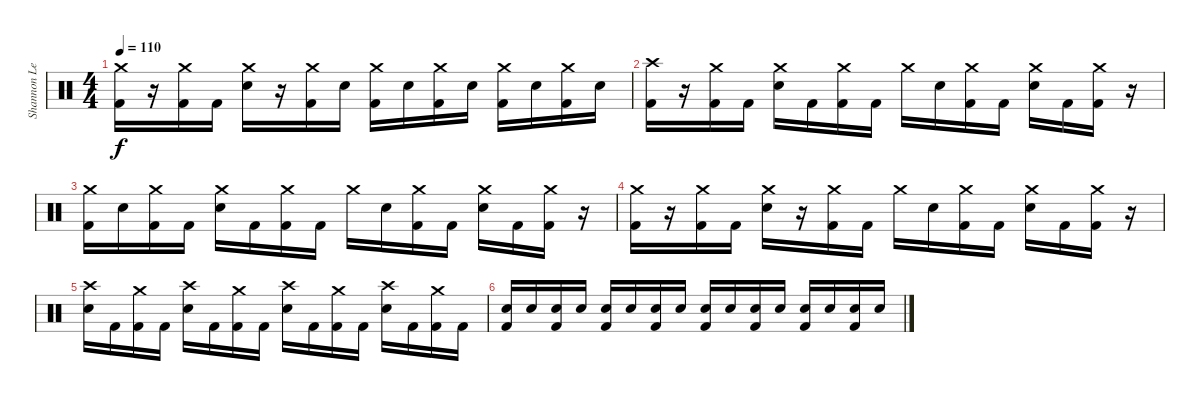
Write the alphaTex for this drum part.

\track ("Shannon Leto [Drums]" "Shannon Le") {instrument percussion}
\staff {score}
\articulation defaults
\ts (4 4)
\tempo 110
\clef neutral
\ks c
("Crash medium (hit)" "Kick (hit) 2").16{dy f} r.16 ("Crash medium (hit)" "Kick (hit) 2").16 "Kick (hit) 2".16 ("Crash medium (hit)" "Electric Snare (hit)").16 r.16 ("Crash medium (hit)" "Kick (hit) 2").16 "Electric Snare (hit)".16 ("Crash medium (hit)" "Kick (hit) 2").16 "Electric Snare (hit)".16 ("Crash medium (hit)" "Kick (hit) 2").16 "Electric Snare (hit)".16 ("Crash medium (hit)" "Kick (hit) 2").16 "Electric Snare (hit)".16 ("Crash medium (hit)" "Kick (hit) 2").16 "Electric Snare (hit)".16 |
("Crash high (hit)" "Kick (hit) 2").16 r.16 ("Crash medium (hit)" "Kick (hit) 2").16 "Kick (hit) 2".16 ("Crash medium (hit)" "Electric Snare (hit)").16 "Kick (hit) 2".16 ("Crash medium (hit)" "Kick (hit) 2").16 "Kick (hit) 2".16 "Crash medium (hit)".16 "Electric Snare (hit)".16 ("Crash medium (hit)" "Kick (hit) 2").16 "Kick (hit) 2".16 ("Crash medium (hit)" "Electric Snare (hit)").16 "Kick (hit) 2".16 ("Crash medium (hit)" "Kick (hit) 2").16 r.16 |
("Crash medium (hit)" "Kick (hit) 2").16 "Electric Snare (hit)".16 ("Crash medium (hit)" "Kick (hit) 2").16 "Kick (hit) 2".16 ("Crash medium (hit)" "Electric Snare (hit)").16 "Kick (hit) 2".16 ("Crash medium (hit)" "Kick (hit) 2").16 "Kick (hit) 2".16 "Crash medium (hit)".16 "Electric Snare (hit)".16 ("Crash medium (hit)" "Kick (hit) 2").16 "Kick (hit) 2".16 ("Crash medium (hit)" "Electric Snare (hit)").16 "Kick (hit) 2".16 ("Crash medium (hit)" "Kick (hit) 2").16 r.16 |
("Crash medium (hit)" "Kick (hit) 2").16 r.16 ("Crash medium (hit)" "Kick (hit) 2").16 "Kick (hit) 2".16 ("Crash medium (hit)" "Electric Snare (hit)").16 r.16 ("Crash medium (hit)" "Kick (hit) 2").16 "Kick (hit) 2".16 "Crash medium (hit)".16 "Electric Snare (hit)".16 ("Crash medium (hit)" "Kick (hit) 2").16 "Kick (hit) 2".16 ("Crash medium (hit)" "Electric Snare (hit)").16 "Kick (hit) 2".16 ("Crash medium (hit)" "Kick (hit) 2").16 r.16 |
("Crash high (hit)" "Electric Snare (hit)").16 "Kick (hit) 2".16 ("Crash medium (hit)" "Kick (hit) 2").16 "Kick (hit) 2".16 ("Crash high (hit)" "Electric Snare (hit)").16 "Kick (hit) 2".16 ("Crash medium (hit)" "Kick (hit) 2").16 "Kick (hit) 2".16 ("Crash high (hit)" "Electric Snare (hit)").16 "Kick (hit) 2".16 ("Crash medium (hit)" "Kick (hit) 2").16 "Kick (hit) 2".16 ("Crash high (hit)" "Electric Snare (hit)").16 "Kick (hit) 2".16 ("Crash medium (hit)" "Kick (hit) 2").16 "Kick (hit) 2".16 |
("Electric Snare (hit)" "Kick (hit) 2").16{volume 6} "Electric Snare (hit)".16 ("Electric Snare (hit)" "Kick (hit) 2").16 "Electric Snare (hit)".16{volume 9} ("Electric Snare (hit)" "Kick (hit) 2").16 "Electric Snare (hit)".16 ("Electric Snare (hit)" "Kick (hit) 2").16{volume 11} "Electric Snare (hit)".16 ("Electric Snare (hit)" "Kick (hit) 2").16 "Electric Snare (hit)".16{volume 13} ("Electric Snare (hit)" "Kick (hit) 2").16 "Electric Snare (hit)".16 ("Electric Snare (hit)" "Kick (hit) 2").16 "Electric Snare (hit)".16 ("Electric Snare (hit)" "Kick (hit) 2").16 "Electric Snare (hit)".16
